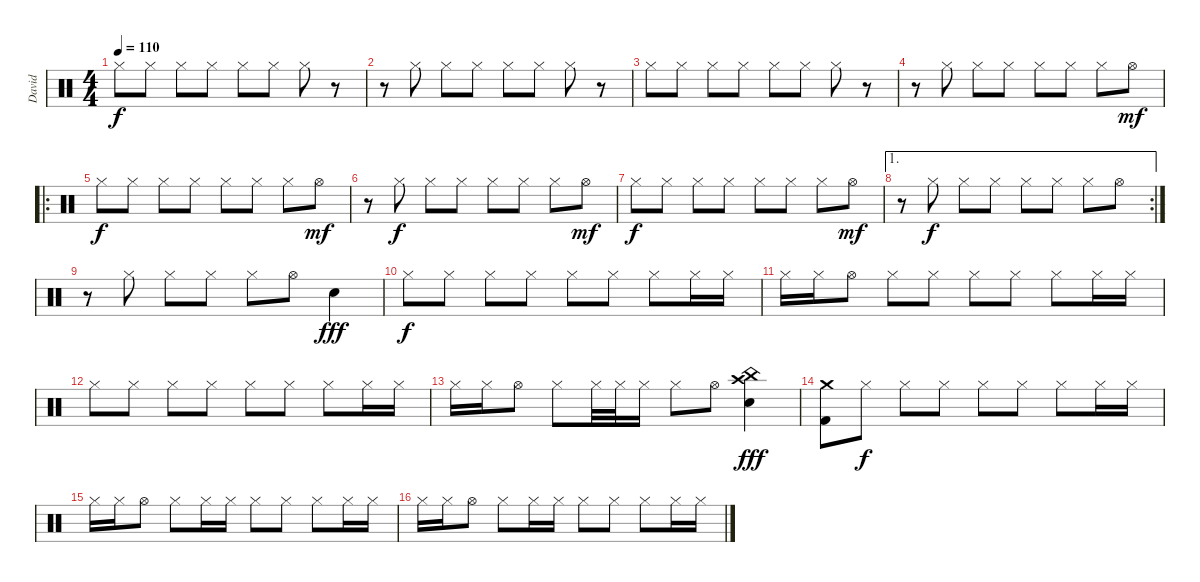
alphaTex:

\track ("David" "David") {instrument percussion}
\staff {score}
\articulation defaults
\ts (4 4)
\tempo 110
\clef neutral
\ks c "Hi-Hat (closed)".8{dy f} "Hi-Hat (closed)".8 "Hi-Hat (closed)".8 "Hi-Hat (closed)".8 "Hi-Hat (closed)".8 "Hi-Hat (closed)".8 "Hi-Hat (closed)".8
r.8 |
r.8 "Hi-Hat (closed)".8 "Hi-Hat (closed)".8 "Hi-Hat (closed)".8 "Hi-Hat (closed)".8 "Hi-Hat (closed)".8 "Hi-Hat (closed)".8 r.8 |
"Hi-Hat (closed)".8 "Hi-Hat (closed)".8 "Hi-Hat (closed)".8 "Hi-Hat (closed)".8 "Hi-Hat (closed)".8 "Hi-Hat (closed)".8 "Hi-Hat (closed)".8 r.8 |
r.8 "Hi-Hat (closed)".8 "Hi-Hat (closed)".8 "Hi-Hat (closed)".8 "Hi-Hat (closed)".8 "Hi-Hat (closed)".8 "Hi-Hat (closed)".8 "Hi-Hat (open)".8{dy mf} |
\ro "Hi-Hat (closed)".8{dy f} "Hi-Hat (closed)".8 "Hi-Hat (closed)".8 "Hi-Hat (closed)".8 "Hi-Hat (closed)".8 "Hi-Hat (closed)".8 "Hi-Hat (closed)".8 "Hi-Hat (open)".8{dy mf}
|
r.8 "Hi-Hat (closed)".8{dy f} "Hi-Hat (closed)".8 "Hi-Hat (closed)".8 "Hi-Hat (closed)".8 "Hi-Hat (closed)".8 "Hi-Hat (closed)".8 "Hi-Hat (open)".8{dy mf} |
"Hi-Hat (closed)".8{dy f} "Hi-Hat (closed)".8 "Hi-Hat (closed)".8 "Hi-Hat (closed)".8 "Hi-Hat (closed)".8 "Hi-Hat (closed)".8 "Hi-Hat (closed)".8 "Hi-Hat (open)".8{dy mf} |
\ae 1
\rc 2
r.8 "Hi-Hat (closed)".8{dy f} "Hi-Hat (closed)".8 "Hi-Hat (closed)".8 "Hi-Hat (closed)".8 "Hi-Hat (closed)".8 "Hi-Hat (closed)".8 "Hi-Hat (open)".8 |
r.8 "Hi-Hat (closed)".8 "Hi-Hat (closed)".8 "Hi-Hat (closed)".8 "Hi-Hat (closed)".8 "Hi-Hat (open)".8 "Snare (hit) 2".4{dy fff} |
"Hi-Hat (closed)".8{dy f} "Hi-Hat (closed)".8 "Hi-Hat (closed)".8 "Hi-Hat (closed)".8 "Hi-Hat (closed)".8 "Hi-Hat (closed)".8 "Hi-Hat (closed)".8 "Hi-Hat (closed)".16 "Hi-Hat (closed)".16 |
"Hi-Hat (closed)".16 "Hi-Hat (closed)".16 "Hi-Hat (open)".8 "Hi-Hat (closed)".8 "Hi-Hat (closed)".8 "Hi-Hat (closed)".8 "Hi-Hat (closed)".8 "Hi-Hat (closed)".8 "Hi-Hat (closed)".16 "Hi-Hat (closed)".16 |
"Hi-Hat (closed)".8 "Hi-Hat (closed)".8 "Hi-Hat (closed)".8 "Hi-Hat (closed)".8 "Hi-Hat (closed)".8 "Hi-Hat (closed)".8 "Hi-Hat (closed)".8 "Hi-Hat (closed)".16 "Hi-Hat (closed)".16 |
"Hi-Hat (closed)".16 "Hi-Hat (closed)".16 "Hi-Hat (open)".8 "Hi-Hat (closed)".8 "Hi-Hat (closed)".32 "Hi-Hat (closed)".32 "Hi-Hat (closed)".16 "Hi-Hat (closed)".8 "Hi-Hat (open)".8 ("China (hit)" "Snare (hit) 2" "Crash high (hit)").4{dy fff} |
("Crash medium (hit)" "Kick (hit) 2").8 "Hi-Hat (closed)".8{dy f} "Hi-Hat (closed)".8 "Hi-Hat (closed)".8 "Hi-Hat (closed)".8 "Hi-Hat (closed)".8 "Hi-Hat (closed)".8 "Hi-Hat (closed)".16 "Hi-Hat (closed)".16 |
"Hi-Hat (closed)".16 "Hi-Hat (closed)".16 "Hi-Hat (open)".8 "Hi-Hat (closed)".8 "Hi-Hat (closed)".16 "Hi-Hat (closed)".16 "Hi-Hat (closed)".8 "Hi-Hat (closed)".8 "Hi-Hat (closed)".8 "Hi-Hat (closed)".16 "Hi-Hat (closed)".16 |
"Hi-Hat (closed)".16 "Hi-Hat (closed)".16 "Hi-Hat (open)".8 "Hi-Hat (closed)".8 "Hi-Hat (closed)".16 "Hi-Hat (closed)".16 "Hi-Hat (closed)".8 "Hi-Hat (closed)".8 "Hi-Hat (closed)".8 "Hi-Hat (closed)".16 "Hi-Hat (closed)".16
